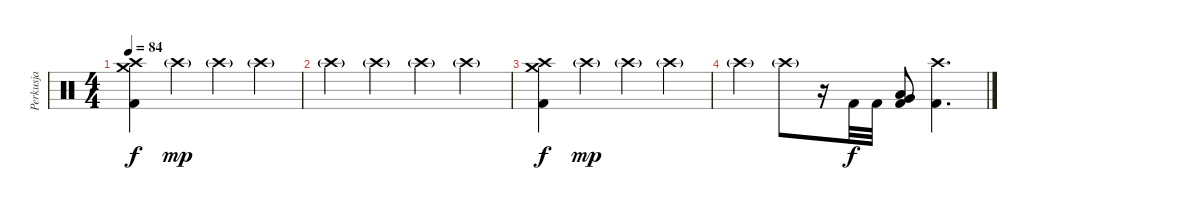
\track ("Perkusja" "Perkusja") {instrument percussion}
\staff {score}
\articulation defaults
\ts (4 4)
\tempo 84
\clef neutral
\ks c
("Kick (hit) 2" "Crash medium (hit)" "Crash high (hit)").4{dy f} "Crash high (hit)"{g}.4{dy mp} "Crash high (hit)"{g}.4 "Crash high (hit)"{g}.4 |
"Crash high (hit)"{g}.4 "Crash high (hit)"{g}.4 "Crash high (hit)"{g}.4 "Crash high (hit)"{g}.4 |
("Kick (hit) 2" "Crash medium (hit)" "Crash high (hit)").4{dy f} "Crash high (hit)"{g}.4{dy mp} "Crash high (hit)"{g}.4 "Crash high (hit)"{g}.4 |
"Crash high (hit)"{g}.4 "Crash high (hit)"{g}.8 r.16 "Kick (hit) 2".32{dy f} "Kick (hit) 2".32 ("Kick (hit) 2" "Very Low Tom (hit)" "Low Tom (hit)").8 ("Kick (hit) 2" "Crash high (hit)").4{d}
